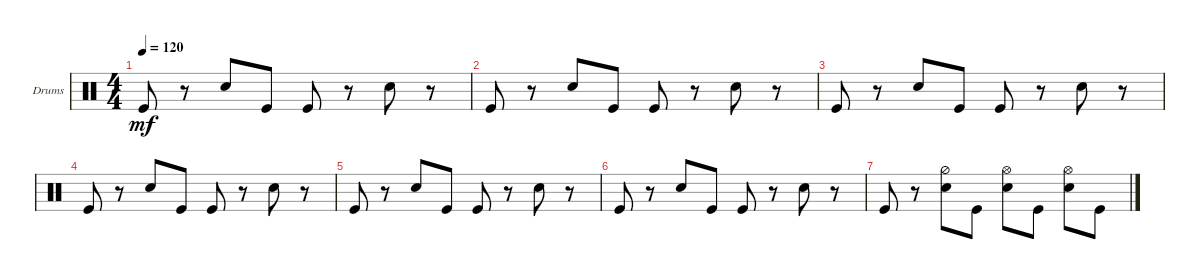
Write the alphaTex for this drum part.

\defaultSystemsLayout 4
\bracketExtendMode groupsimilarinstruments
\firstSystemTrackNameOrientation horizontal
\otherSystemsTrackNameOrientation horizontal
\track ("Drumkit" "Drums") {instrument percussion}
\staff {score}
\articulation defaults
\ts (4 4)
\tempo 120
\clef neutral
\ks c "Kick (hit)".8{dy mf}
r.8 "Snare (hit) 2".8 "Kick (hit)".8 "Kick (hit)".8 r.8 "Snare (hit) 2".8 r.8 |
"Kick (hit)".8 r.8 "Snare (hit) 2".8 "Kick (hit)".8 "Kick (hit)".8 r.8 "Snare (hit) 2".8 r.8 |
"Kick (hit)".8 r.8 "Snare (hit) 2".8 "Kick (hit)".8 "Kick (hit)".8 r.8 "Snare (hit) 2".8 r.8 |
"Kick (hit)".8 r.8 "Snare (hit) 2".8 "Kick (hit)".8 "Kick (hit)".8 r.8 "Snare (hit) 2".8 r.8 |
"Kick (hit)".8 r.8 "Snare (hit) 2".8 "Kick (hit)".8 "Kick (hit)".8 r.8 "Snare (hit) 2".8 r.8 |
"Kick (hit)".8 r.8 "Snare (hit) 2".8 "Kick (hit)".8 "Kick (hit)".8 r.8 "Snare (hit) 2".8 r.8 |
"Kick (hit)".8 r.8 ("Snare (hit) 2" "Hi-Hat (half)").8 "Kick (hit)".8 ("Snare (hit) 2" "Hi-Hat (open)").8 "Kick (hit)".8 ("Snare (hit) 2" "Hi-Hat (open)").8 "Kick (hit)".8
